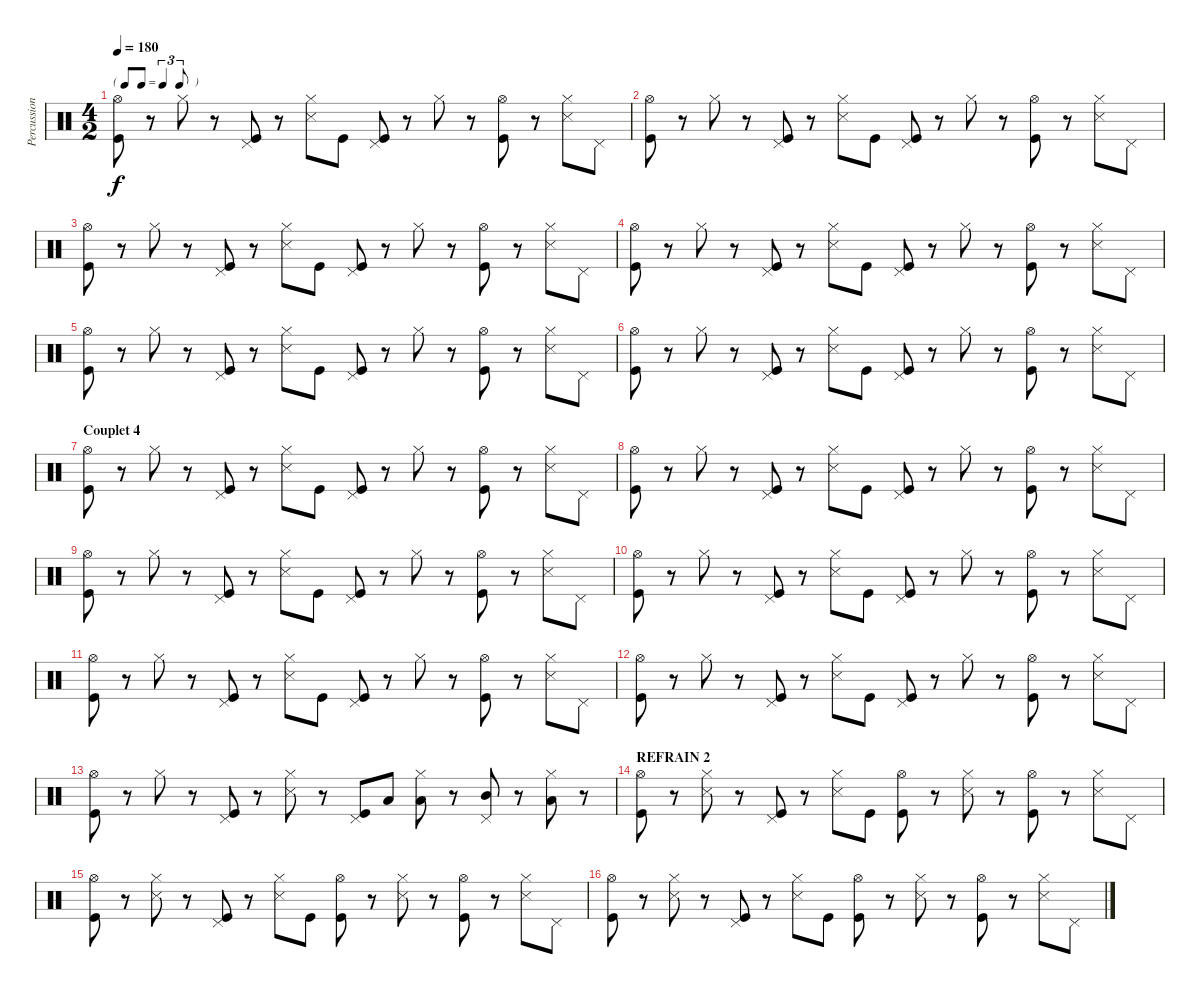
\track ("Percussion" "Percussion") {instrument percussion}
\staff {score}
\articulation defaults
\ts (4 2)
\tf triplet8th
\tempo 180
\clef neutral
\ks c
("Hi-Hat (open)" "Kick (hit)").8{dy f} r.8 "Hi-Hat (closed)".8 r.8 ("Pedal Hi-Hat (hit)" "Kick (hit)").8 r.8 ("Hi-Hat (closed)" "Snare (side stick) 3").8 "Kick (hit)".8 ("Pedal Hi-Hat (hit)" "Kick (hit)").8 r.8 "Hi-Hat (closed)".8 r.8 ("Hi-Hat (open)" "Kick (hit)").8 r.8 ("Hi-Hat (closed)" "Snare (side stick) 3").8 "Pedal Hi-Hat (hit)".8 |
("Hi-Hat (open)" "Kick (hit)").8 r.8 "Hi-Hat (closed)".8 r.8 ("Pedal Hi-Hat (hit)" "Kick (hit)").8 r.8 ("Hi-Hat (closed)" "Snare (side stick) 3").8 "Kick (hit)".8 ("Pedal Hi-Hat (hit)" "Kick (hit)").8 r.8 "Hi-Hat (closed)".8 r.8 ("Hi-Hat (open)" "Kick (hit)").8 r.8 ("Hi-Hat (closed)" "Snare (side stick) 3").8 "Pedal Hi-Hat (hit)".8 |
("Hi-Hat (open)" "Kick (hit)").8 r.8 "Hi-Hat (closed)".8 r.8 ("Pedal Hi-Hat (hit)" "Kick (hit)").8 r.8 ("Hi-Hat (closed)" "Snare (side stick) 3").8 "Kick (hit)".8 ("Pedal Hi-Hat (hit)" "Kick (hit)").8 r.8 "Hi-Hat (closed)".8 r.8 ("Hi-Hat (open)" "Kick (hit)").8 r.8 ("Hi-Hat (closed)" "Snare (side stick) 3").8 "Pedal Hi-Hat (hit)".8 |
("Hi-Hat (open)" "Kick (hit)").8 r.8 "Hi-Hat (closed)".8 r.8 ("Pedal Hi-Hat (hit)" "Kick (hit)").8 r.8 ("Hi-Hat (closed)" "Snare (side stick) 3").8 "Kick (hit)".8 ("Pedal Hi-Hat (hit)" "Kick (hit)").8 r.8 "Hi-Hat (closed)".8 r.8 ("Hi-Hat (open)" "Kick (hit)").8 r.8 ("Hi-Hat (closed)" "Snare (side stick) 3").8 "Pedal Hi-Hat (hit)".8 |
("Hi-Hat (open)" "Kick (hit)").8 r.8 "Hi-Hat (closed)".8 r.8 ("Pedal Hi-Hat (hit)" "Kick (hit)").8 r.8 ("Hi-Hat (closed)" "Snare (side stick) 3").8 "Kick (hit)".8 ("Pedal Hi-Hat (hit)" "Kick (hit)").8 r.8 "Hi-Hat (closed)".8 r.8 ("Hi-Hat (open)" "Kick (hit)").8 r.8 ("Hi-Hat (closed)" "Snare (side stick) 3").8 "Pedal Hi-Hat (hit)".8 |
("Hi-Hat (open)" "Kick (hit)").8 r.8 "Hi-Hat (closed)".8 r.8 ("Pedal Hi-Hat (hit)" "Kick (hit)").8 r.8 ("Hi-Hat (closed)" "Snare (side stick) 3").8 "Kick (hit)".8 ("Pedal Hi-Hat (hit)" "Kick (hit)").8 r.8 "Hi-Hat (closed)".8 r.8 ("Hi-Hat (open)" "Kick (hit)").8 r.8 ("Hi-Hat (closed)" "Snare (side stick) 3").8 "Pedal Hi-Hat (hit)".8 |
\section ("" "Couplet 4")
("Hi-Hat (open)" "Kick (hit)").8 r.8 "Hi-Hat (closed)".8 r.8 ("Pedal Hi-Hat (hit)" "Kick (hit)").8 r.8 ("Hi-Hat (closed)" "Snare (side stick) 3").8 "Kick (hit)".8 ("Pedal Hi-Hat (hit)" "Kick (hit)").8 r.8 "Hi-Hat (closed)".8 r.8 ("Hi-Hat (open)" "Kick (hit)").8 r.8 ("Hi-Hat (closed)" "Snare (side stick) 3").8 "Pedal Hi-Hat (hit)".8 |
("Hi-Hat (open)" "Kick (hit)").8 r.8 "Hi-Hat (closed)".8 r.8 ("Pedal Hi-Hat (hit)" "Kick (hit)").8 r.8 ("Hi-Hat (closed)" "Snare (side stick) 3").8 "Kick (hit)".8 ("Pedal Hi-Hat (hit)" "Kick (hit)").8 r.8 "Hi-Hat (closed)".8 r.8 ("Hi-Hat (open)" "Kick (hit)").8 r.8 ("Hi-Hat (closed)" "Snare (side stick) 3").8 "Pedal Hi-Hat (hit)".8 |
("Hi-Hat (open)" "Kick (hit)").8 r.8 "Hi-Hat (closed)".8 r.8 ("Pedal Hi-Hat (hit)" "Kick (hit)").8 r.8 ("Hi-Hat (closed)" "Snare (side stick) 3").8 "Kick (hit)".8 ("Pedal Hi-Hat (hit)" "Kick (hit)").8 r.8 "Hi-Hat (closed)".8 r.8 ("Hi-Hat (open)" "Kick (hit)").8 r.8 ("Hi-Hat (closed)" "Snare (side stick) 3").8 "Pedal Hi-Hat (hit)".8 |
("Hi-Hat (open)" "Kick (hit)").8 r.8 "Hi-Hat (closed)".8 r.8 ("Pedal Hi-Hat (hit)" "Kick (hit)").8 r.8 ("Hi-Hat (closed)" "Snare (side stick) 3").8 "Kick (hit)".8 ("Pedal Hi-Hat (hit)" "Kick (hit)").8 r.8 "Hi-Hat (closed)".8 r.8 ("Hi-Hat (open)" "Kick (hit)").8 r.8 ("Hi-Hat (closed)" "Snare (side stick) 3").8 "Pedal Hi-Hat (hit)".8 |
("Hi-Hat (open)" "Kick (hit)").8 r.8 "Hi-Hat (closed)".8 r.8 ("Pedal Hi-Hat (hit)" "Kick (hit)").8 r.8 ("Hi-Hat (closed)" "Snare (side stick) 3").8 "Kick (hit)".8 ("Pedal Hi-Hat (hit)" "Kick (hit)").8 r.8 "Hi-Hat (closed)".8 r.8 ("Hi-Hat (open)" "Kick (hit)").8 r.8 ("Hi-Hat (closed)" "Snare (side stick) 3").8 "Pedal Hi-Hat (hit)".8 |
("Hi-Hat (open)" "Kick (hit)").8 r.8 "Hi-Hat (closed)".8 r.8 ("Pedal Hi-Hat (hit)" "Kick (hit)").8 r.8 ("Hi-Hat (closed)" "Snare (side stick) 3").8 "Kick (hit)".8 ("Pedal Hi-Hat (hit)" "Kick (hit)").8 r.8 "Hi-Hat (closed)".8 r.8 ("Hi-Hat (open)" "Kick (hit)").8 r.8 ("Hi-Hat (closed)" "Snare (side stick) 3").8 "Pedal Hi-Hat (hit)".8 |
("Hi-Hat (open)" "Kick (hit)").8 r.8 "Hi-Hat (closed)".8 r.8 ("Pedal Hi-Hat (hit)" "Kick (hit)").8 r.8 ("Hi-Hat (closed)" "Snare (side stick) 3").8 r.8 ("Pedal Hi-Hat (hit)" "Kick (hit)").8 "Low Tom (hit)".8 ("Hi-Hat (closed)" "Low Tom (hit)").8 r.8 ("Pedal Hi-Hat (hit)" "Mid Tom (hit)").8 r.8 ("Hi-Hat (closed)" "Low Tom (hit)").8 r.8 |
\section ("" "REFRAIN 2")
("Hi-Hat (open)" "Kick (hit)").8 r.8 ("Hi-Hat (closed)" "Snare (side stick) 3").8 r.8 ("Pedal Hi-Hat (hit)" "Kick (hit)").8 r.8 ("Hi-Hat (closed)" "Snare (side stick) 3").8 "Kick (hit)".8 ("Hi-Hat (open)" "Kick (hit)").8 r.8 ("Hi-Hat (closed)" "Snare (side stick) 3").8 r.8 ("Hi-Hat (open)" "Kick (hit)").8 r.8 ("Hi-Hat (closed)" "Snare (side stick) 3").8 "Pedal Hi-Hat (hit)".8 |
("Hi-Hat (open)" "Kick (hit)").8 r.8 ("Hi-Hat (closed)" "Snare (side stick) 3").8 r.8 ("Pedal Hi-Hat (hit)" "Kick (hit)").8 r.8 ("Hi-Hat (closed)" "Snare (side stick) 3").8 "Kick (hit)".8 ("Hi-Hat (open)" "Kick (hit)").8 r.8 ("Hi-Hat (closed)" "Snare (side stick) 3").8 r.8 ("Hi-Hat (open)" "Kick (hit)").8 r.8 ("Hi-Hat (closed)" "Snare (side stick) 3").8 "Pedal Hi-Hat (hit)".8 |
("Hi-Hat (open)" "Kick (hit)").8 r.8 ("Hi-Hat (closed)" "Snare (side stick) 3").8 r.8 ("Pedal Hi-Hat (hit)" "Kick (hit)").8 r.8 ("Hi-Hat (closed)" "Snare (side stick) 3").8 "Kick (hit)".8 ("Hi-Hat (open)" "Kick (hit)").8 r.8 ("Hi-Hat (closed)" "Snare (side stick) 3").8 r.8 ("Hi-Hat (open)" "Kick (hit)").8 r.8 ("Hi-Hat (closed)" "Snare (side stick) 3").8 "Pedal Hi-Hat (hit)".8
